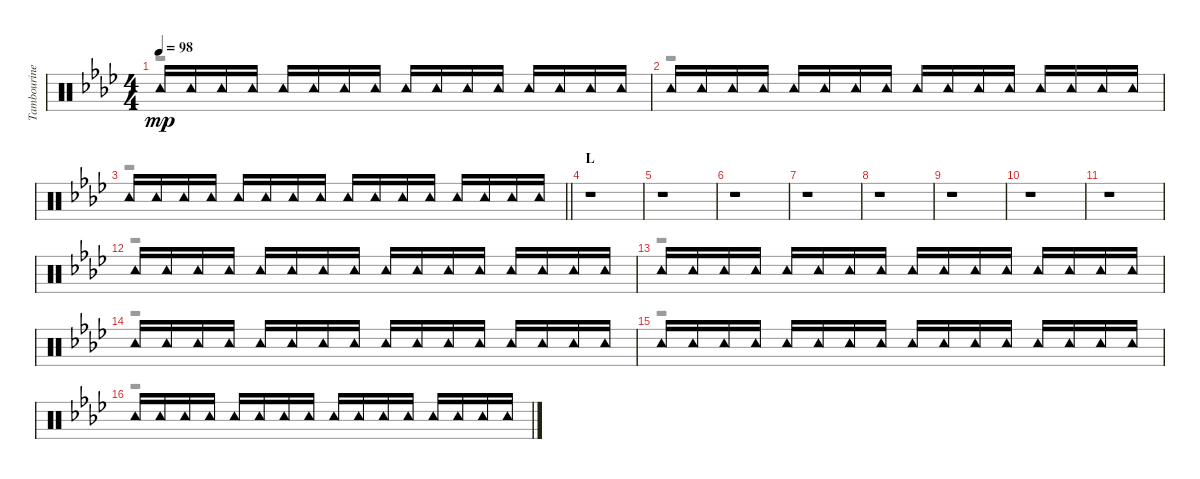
\track ("Tambourine" "Tambourine") {instrument percussion}
\staff {score}
\articulation defaults
\voice
\ts (4 4)
\tempo 98
\clef neutral
\ks ab "Tambourine (hit)".16{dy mp} "Tambourine (hit)".16 "Tambourine (hit)".16 "Tambourine (hit)".16 "Tambourine (hit)".16 "Tambourine (hit)".16 "Tambourine (hit)".16 "Tambourine (hit)".16 "Tambourine (hit)".16 "Tambourine (hit)".16 "Tambourine (hit)".16 "Tambourine (hit)".16 "Tambourine (hit)".16 "Tambourine (hit)".16 "Tambourine (hit)".16 "Tambourine (hit)".16
|
"Tambourine (hit)".16 "Tambourine (hit)".16 "Tambourine (hit)".16 "Tambourine (hit)".16 "Tambourine (hit)".16 "Tambourine (hit)".16 "Tambourine (hit)".16 "Tambourine (hit)".16 "Tambourine (hit)".16 "Tambourine (hit)".16 "Tambourine (hit)".16 "Tambourine (hit)".16 "Tambourine (hit)".16 "Tambourine (hit)".16 "Tambourine (hit)".16 "Tambourine (hit)".16 |
\barLineRight lightlight "Tambourine (hit)".16 "Tambourine (hit)".16 "Tambourine (hit)".16 "Tambourine (hit)".16 "Tambourine (hit)".16 "Tambourine (hit)".16 "Tambourine (hit)".16 "Tambourine (hit)".16 "Tambourine (hit)".16 "Tambourine (hit)".16 "Tambourine (hit)".16 "Tambourine (hit)".16 "Tambourine (hit)".16 "Tambourine (hit)".16 "Tambourine (hit)".16 "Tambourine (hit)".16
|
\section ("" "L")
r.1 |
r.1 |
r.1 |
r.1 |
r.1 |
r.1 |
r.1 |
r.1 |
"Tambourine (hit)".16 "Tambourine (hit)".16 "Tambourine (hit)".16 "Tambourine (hit)".16 "Tambourine (hit)".16 "Tambourine (hit)".16 "Tambourine (hit)".16 "Tambourine (hit)".16 "Tambourine (hit)".16 "Tambourine (hit)".16 "Tambourine (hit)".16 "Tambourine (hit)".16 "Tambourine (hit)".16 "Tambourine (hit)".16 "Tambourine (hit)".16 "Tambourine (hit)".16 |
"Tambourine (hit)".16 "Tambourine (hit)".16 "Tambourine (hit)".16 "Tambourine (hit)".16 "Tambourine (hit)".16 "Tambourine (hit)".16 "Tambourine (hit)".16 "Tambourine (hit)".16 "Tambourine (hit)".16 "Tambourine (hit)".16 "Tambourine (hit)".16 "Tambourine (hit)".16 "Tambourine (hit)".16 "Tambourine (hit)".16 "Tambourine (hit)".16 "Tambourine (hit)".16 |
"Tambourine (hit)".16 "Tambourine (hit)".16 "Tambourine (hit)".16 "Tambourine (hit)".16 "Tambourine (hit)".16 "Tambourine (hit)".16 "Tambourine (hit)".16 "Tambourine (hit)".16 "Tambourine (hit)".16 "Tambourine (hit)".16 "Tambourine (hit)".16 "Tambourine (hit)".16 "Tambourine (hit)".16 "Tambourine (hit)".16 "Tambourine (hit)".16 "Tambourine (hit)".16 |
"Tambourine (hit)".16 "Tambourine (hit)".16 "Tambourine (hit)".16 "Tambourine (hit)".16 "Tambourine (hit)".16 "Tambourine (hit)".16 "Tambourine (hit)".16 "Tambourine (hit)".16 "Tambourine (hit)".16 "Tambourine (hit)".16 "Tambourine (hit)".16 "Tambourine (hit)".16 "Tambourine (hit)".16 "Tambourine (hit)".16 "Tambourine (hit)".16 "Tambourine (hit)".16 |
"Tambourine (hit)".16 "Tambourine (hit)".16 "Tambourine (hit)".16 "Tambourine (hit)".16 "Tambourine (hit)".16 "Tambourine (hit)".16 "Tambourine (hit)".16 "Tambourine (hit)".16 "Tambourine (hit)".16 "Tambourine (hit)".16 "Tambourine (hit)".16 "Tambourine (hit)".16 "Tambourine (hit)".16 "Tambourine (hit)".16 "Tambourine (hit)".16 "Tambourine (hit)".16
\voice
\clef neutral
\ottava regular
\simile none
\ks ab
r.1{dy f} |
r.1 |
\barLineRight lightlight
r.1 |
r.1 |
r.1 |
r.1 |
r.1 |
r.1 |
r.1 |
r.1 |
r.1 |
r.1 |
r.1 |
r.1 |
r.1 |
r.1
